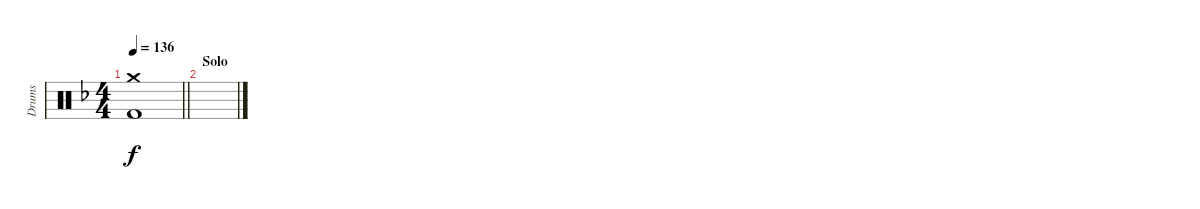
\track ("Drums" "Drums") {instrument percussion}
\staff {score}
\articulation defaults
\ts (4 4)
\tempo 136
\clef neutral
\barLineRight lightlight
\ks f
("Crash medium (hit)" "Kick (hit) 2").1{dy f} |
\section ("" "Solo")
